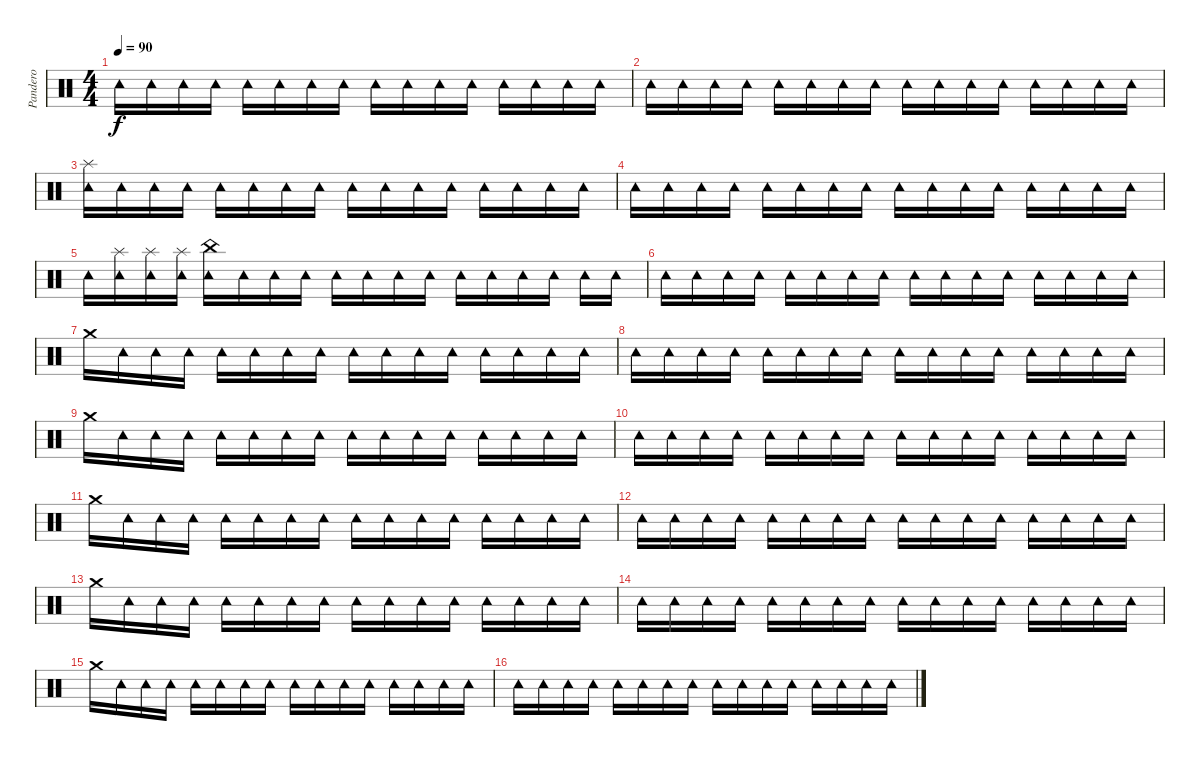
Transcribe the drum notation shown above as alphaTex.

\track ("Pandero" "Pandero") {instrument percussion}
\staff {score}
\articulation defaults
\ts (4 4)
\tempo 90
\clef neutral
\ks c "Tambourine (hit)".16{dy f} "Tambourine (hit)".16 "Tambourine (hit)".16 "Tambourine (hit)".16 "Tambourine (hit)".16 "Tambourine (hit)".16 "Tambourine (hit)".16 "Tambourine (hit)".16 "Tambourine (hit)".16 "Tambourine (hit)".16 "Tambourine (hit)".16 "Tambourine (hit)".16 "Tambourine (hit)".16 "Tambourine (hit)".16 "Tambourine (hit)".16 "Tambourine (hit)".16
|
"Tambourine (hit)".16 "Tambourine (hit)".16 "Tambourine (hit)".16 "Tambourine (hit)".16 "Tambourine (hit)".16 "Tambourine (hit)".16 "Tambourine (hit)".16 "Tambourine (hit)".16 "Tambourine (hit)".16 "Tambourine (hit)".16 "Tambourine (hit)".16 "Tambourine (hit)".16 "Tambourine (hit)".16 "Tambourine (hit)".16 "Tambourine (hit)".16 "Tambourine (hit)".16 |
("Tambourine (hit)" "Splash (hit)").16 "Tambourine (hit)".16 "Tambourine (hit)".16 "Tambourine (hit)".16 "Tambourine (hit)".16 "Tambourine (hit)".16 "Tambourine (hit)".16 "Tambourine (hit)".16 "Tambourine (hit)".16 "Tambourine (hit)".16 "Tambourine (hit)".16 "Tambourine (hit)".16 "Tambourine (hit)".16 "Tambourine (hit)".16 "Tambourine (hit)".16 "Tambourine (hit)".16 |
"Tambourine (hit)".16 "Tambourine (hit)".16 "Tambourine (hit)".16 "Tambourine (hit)".16 "Tambourine (hit)".16 "Tambourine (hit)".16 "Tambourine (hit)".16 "Tambourine (hit)".16 "Tambourine (hit)".16 "Tambourine (hit)".16 "Tambourine (hit)".16 "Tambourine (hit)".16 "Tambourine (hit)".16 "Tambourine (hit)".16 "Tambourine (hit)".16 "Tambourine (hit)".16 |
"Tambourine (hit)".16 ("Tambourine (hit)" "Splash (hit)").16 ("Tambourine (hit)" "Splash (hit)").16 ("Tambourine (hit)" "Splash (hit)").16 ("Tambourine (hit)" "China (hit)").16 "Tambourine (hit)".16 "Tambourine (hit)".16 "Tambourine (hit)".16 "Tambourine (hit)".16 "Tambourine (hit)".16 "Tambourine (hit)".16 "Tambourine (hit)".16 "Tambourine (hit)".16 "Tambourine (hit)".16 "Tambourine (hit)".16 "Tambourine (hit)".16 "Tambourine (hit)".16 "Tambourine (hit)".16 |
"Tambourine (hit)".16 "Tambourine (hit)".16 "Tambourine (hit)".16 "Tambourine (hit)".16 "Tambourine (hit)".16 "Tambourine (hit)".16 "Tambourine (hit)".16 "Tambourine (hit)".16 "Tambourine (hit)".16 "Tambourine (hit)".16 "Tambourine (hit)".16 "Tambourine (hit)".16 "Tambourine (hit)".16 "Tambourine (hit)".16 "Tambourine (hit)".16 "Tambourine (hit)".16 |
"Crash medium (hit)".16 "Tambourine (hit)".16 "Tambourine (hit)".16 "Tambourine (hit)".16 "Tambourine (hit)".16 "Tambourine (hit)".16 "Tambourine (hit)".16 "Tambourine (hit)".16 "Tambourine (hit)".16 "Tambourine (hit)".16 "Tambourine (hit)".16 "Tambourine (hit)".16 "Tambourine (hit)".16 "Tambourine (hit)".16 "Tambourine (hit)".16 "Tambourine (hit)".16 |
"Tambourine (hit)".16 "Tambourine (hit)".16 "Tambourine (hit)".16 "Tambourine (hit)".16 "Tambourine (hit)".16 "Tambourine (hit)".16 "Tambourine (hit)".16 "Tambourine (hit)".16 "Tambourine (hit)".16 "Tambourine (hit)".16 "Tambourine (hit)".16 "Tambourine (hit)".16 "Tambourine (hit)".16 "Tambourine (hit)".16 "Tambourine (hit)".16 "Tambourine (hit)".16 |
"Crash medium (hit)".16 "Tambourine (hit)".16 "Tambourine (hit)".16 "Tambourine (hit)".16 "Tambourine (hit)".16 "Tambourine (hit)".16 "Tambourine (hit)".16 "Tambourine (hit)".16 "Tambourine (hit)".16 "Tambourine (hit)".16 "Tambourine (hit)".16 "Tambourine (hit)".16 "Tambourine (hit)".16 "Tambourine (hit)".16 "Tambourine (hit)".16 "Tambourine (hit)".16 |
"Tambourine (hit)".16 "Tambourine (hit)".16 "Tambourine (hit)".16 "Tambourine (hit)".16 "Tambourine (hit)".16 "Tambourine (hit)".16 "Tambourine (hit)".16 "Tambourine (hit)".16 "Tambourine (hit)".16 "Tambourine (hit)".16 "Tambourine (hit)".16 "Tambourine (hit)".16 "Tambourine (hit)".16 "Tambourine (hit)".16 "Tambourine (hit)".16 "Tambourine (hit)".16 |
"Crash medium (hit)".16 "Tambourine (hit)".16 "Tambourine (hit)".16 "Tambourine (hit)".16 "Tambourine (hit)".16 "Tambourine (hit)".16 "Tambourine (hit)".16 "Tambourine (hit)".16 "Tambourine (hit)".16 "Tambourine (hit)".16 "Tambourine (hit)".16 "Tambourine (hit)".16 "Tambourine (hit)".16 "Tambourine (hit)".16 "Tambourine (hit)".16 "Tambourine (hit)".16 |
"Tambourine (hit)".16 "Tambourine (hit)".16 "Tambourine (hit)".16 "Tambourine (hit)".16 "Tambourine (hit)".16 "Tambourine (hit)".16 "Tambourine (hit)".16 "Tambourine (hit)".16 "Tambourine (hit)".16 "Tambourine (hit)".16 "Tambourine (hit)".16 "Tambourine (hit)".16 "Tambourine (hit)".16 "Tambourine (hit)".16 "Tambourine (hit)".16 "Tambourine (hit)".16 |
"Crash medium (hit)".16 "Tambourine (hit)".16 "Tambourine (hit)".16 "Tambourine (hit)".16 "Tambourine (hit)".16 "Tambourine (hit)".16 "Tambourine (hit)".16 "Tambourine (hit)".16 "Tambourine (hit)".16 "Tambourine (hit)".16 "Tambourine (hit)".16 "Tambourine (hit)".16 "Tambourine (hit)".16 "Tambourine (hit)".16 "Tambourine (hit)".16 "Tambourine (hit)".16 |
"Tambourine (hit)".16 "Tambourine (hit)".16 "Tambourine (hit)".16 "Tambourine (hit)".16 "Tambourine (hit)".16 "Tambourine (hit)".16 "Tambourine (hit)".16 "Tambourine (hit)".16 "Tambourine (hit)".16 "Tambourine (hit)".16 "Tambourine (hit)".16 "Tambourine (hit)".16 "Tambourine (hit)".16 "Tambourine (hit)".16 "Tambourine (hit)".16 "Tambourine (hit)".16 |
"Crash medium (hit)".16 "Tambourine (hit)".16 "Tambourine (hit)".16 "Tambourine (hit)".16 "Tambourine (hit)".16 "Tambourine (hit)".16 "Tambourine (hit)".16 "Tambourine (hit)".16 "Tambourine (hit)".16 "Tambourine (hit)".16 "Tambourine (hit)".16 "Tambourine (hit)".16 "Tambourine (hit)".16 "Tambourine (hit)".16 "Tambourine (hit)".16 "Tambourine (hit)".16 |
"Tambourine (hit)".16 "Tambourine (hit)".16 "Tambourine (hit)".16 "Tambourine (hit)".16 "Tambourine (hit)".16 "Tambourine (hit)".16 "Tambourine (hit)".16 "Tambourine (hit)".16 "Tambourine (hit)".16 "Tambourine (hit)".16 "Tambourine (hit)".16 "Tambourine (hit)".16 "Tambourine (hit)".16 "Tambourine (hit)".16 "Tambourine (hit)".16 "Tambourine (hit)".16
